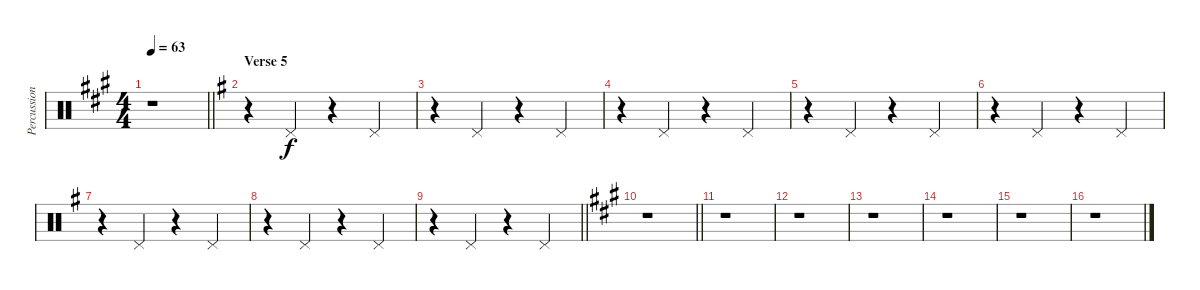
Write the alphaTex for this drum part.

\track ("Percussion" "Percussion") {instrument percussion}
\staff {score}
\articulation defaults
\ts (4 4)
\tempo 63
\clef neutral
\barLineRight lightlight
\ks a
r.1{dy f} |
\section ("" "Verse 5")
\ks g
r.4 "Pedal Hi-Hat (hit)".4 r.4 "Pedal Hi-Hat (hit)".4 |
r.4 "Pedal Hi-Hat (hit)".4 r.4 "Pedal Hi-Hat (hit)".4 |
r.4 "Pedal Hi-Hat (hit)".4 r.4 "Pedal Hi-Hat (hit)".4 |
r.4 "Pedal Hi-Hat (hit)".4 r.4 "Pedal Hi-Hat (hit)".4 |
r.4 "Pedal Hi-Hat (hit)".4 r.4 "Pedal Hi-Hat (hit)".4 |
r.4 "Pedal Hi-Hat (hit)".4 r.4 "Pedal Hi-Hat (hit)".4 |
r.4 "Pedal Hi-Hat (hit)".4 r.4 "Pedal Hi-Hat (hit)".4 |
\barLineRight lightlight
r.4 "Pedal Hi-Hat (hit)".4 r.4 "Pedal Hi-Hat (hit)".4 |
\barLineRight lightlight
\ks a
r.1 |
r.1 |
r.1 |
r.1 |
r.1 |
r.1 |
r.1
